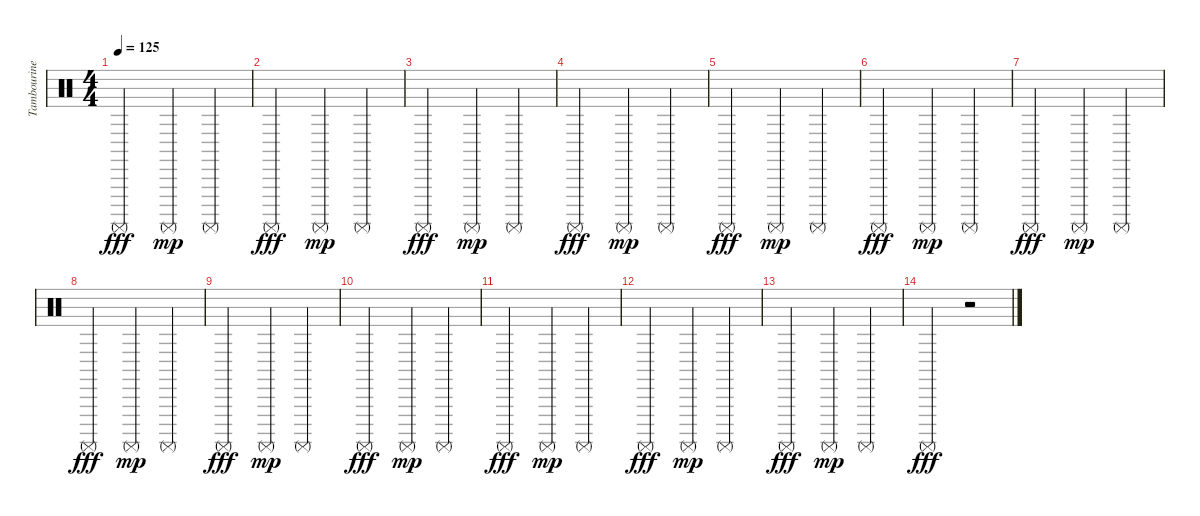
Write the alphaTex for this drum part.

\track ("Tambourine" "Tambourine") {instrument percussion}
\staff {score}
\articulation defaults
\ts (4 4)
\tempo 125
\clef neutral
\ks c "Surdo (mute)".2{dy fff} "Surdo (mute)".4{dy mp} "Surdo (mute)".4
|
"Surdo (mute)".2{dy fff} "Surdo (mute)".4{dy mp} "Surdo (mute)".4 |
"Surdo (mute)".2{dy fff} "Surdo (mute)".4{dy mp} "Surdo (mute)".4 |
"Surdo (mute)".2{dy fff} "Surdo (mute)".4{dy mp} "Surdo (mute)".4 |
"Surdo (mute)".2{dy fff} "Surdo (mute)".4{dy mp} "Surdo (mute)".4 |
"Surdo (mute)".2{dy fff} "Surdo (mute)".4{dy mp} "Surdo (mute)".4 |
"Surdo (mute)".2{dy fff} "Surdo (mute)".4{dy mp} "Surdo (mute)".4 |
"Surdo (mute)".2{dy fff} "Surdo (mute)".4{dy mp} "Surdo (mute)".4 |
"Surdo (mute)".2{dy fff} "Surdo (mute)".4{dy mp} "Surdo (mute)".4 |
"Surdo (mute)".2{dy fff} "Surdo (mute)".4{dy mp} "Surdo (mute)".4 |
"Surdo (mute)".2{dy fff} "Surdo (mute)".4{dy mp} "Surdo (mute)".4 |
"Surdo (mute)".2{dy fff} "Surdo (mute)".4{dy mp} "Surdo (mute)".4 |
"Surdo (mute)".2{dy fff} "Surdo (mute)".4{dy mp} "Surdo (mute)".4 |
"Surdo (mute)".2{dy fff} r.2
